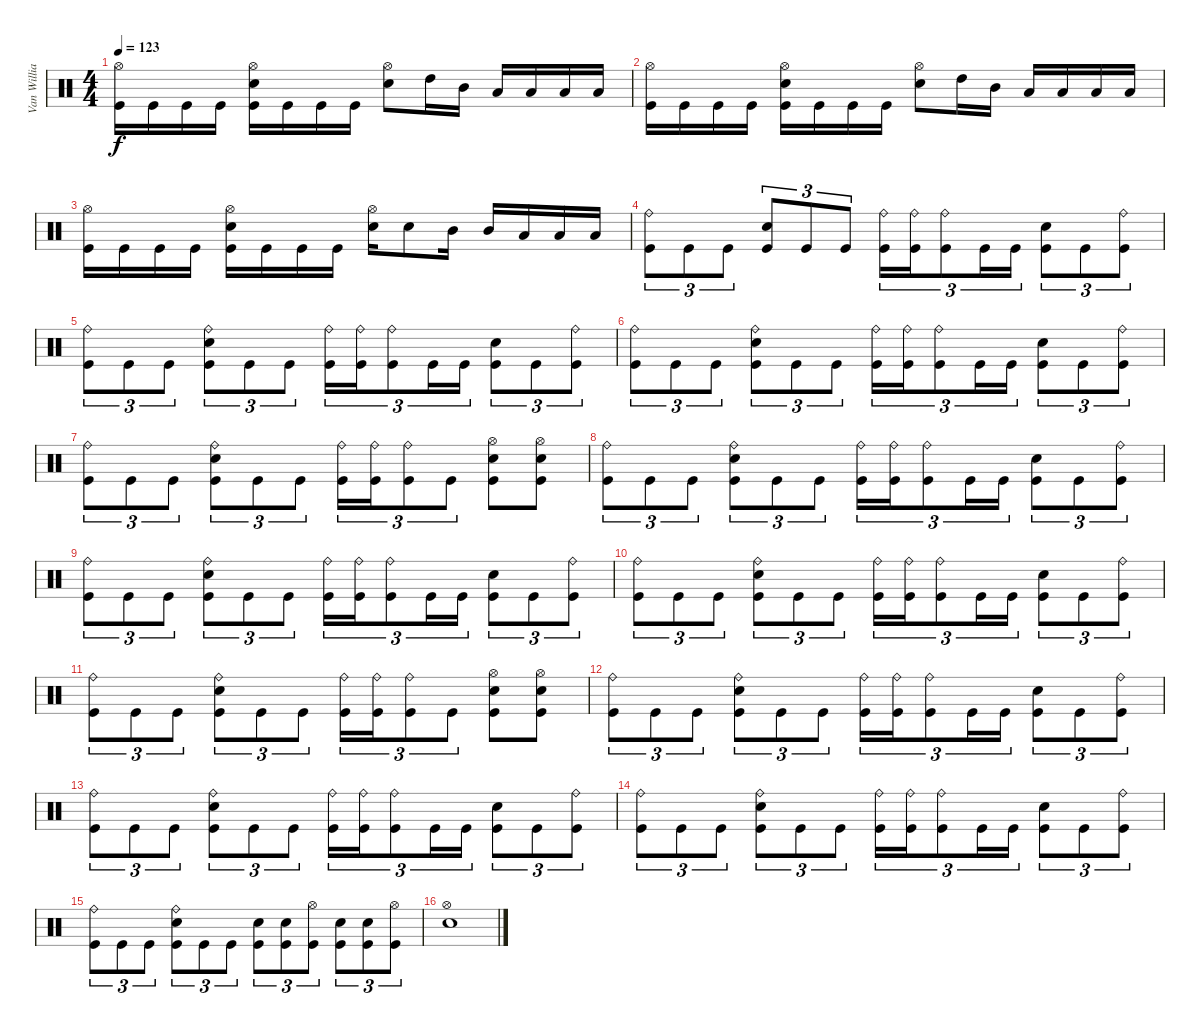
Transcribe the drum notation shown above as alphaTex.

\track ("Van Williams" "Van Willia") {instrument percussion}
\staff {score}
\articulation defaults
\ts (4 4)
\tempo 123
\clef neutral
\ks c
("Hi-Hat (open)" "Kick (hit)").16{dy f} "Kick (hit)".16 "Kick (hit)".16 "Kick (hit)".16 ("Hi-Hat (open)" "Electric Snare (hit)" "Kick (hit)").16 "Kick (hit)".16 "Kick (hit)".16 "Kick (hit)".16 ("Hi-Hat (open)" "Electric Snare (hit)").8 "High Tom (hit)".16 "Mid Tom (hit)".16 "Low Tom (hit)".16 "Low Tom (hit)".16 "Low Tom (hit)".16 "Low Tom (hit)".16 |
("Hi-Hat (open)" "Kick (hit)").16 "Kick (hit)".16 "Kick (hit)".16 "Kick (hit)".16 ("Hi-Hat (open)" "Electric Snare (hit)" "Kick (hit)").16 "Kick (hit)".16 "Kick (hit)".16 "Kick (hit)".16 ("Hi-Hat (open)" "Electric Snare (hit)").8 "High Tom (hit)".16 "Mid Tom (hit)".16 "Low Tom (hit)".16 "Low Tom (hit)".16 "Low Tom (hit)".16 "Low Tom (hit)".16 |
("Hi-Hat (open)" "Kick (hit)").16 "Kick (hit)".16 "Kick (hit)".16 "Kick (hit)".16 ("Hi-Hat (open)" "Electric Snare (hit)" "Kick (hit)").16 "Kick (hit)".16 "Kick (hit)".16 "Kick (hit)".16 ("Hi-Hat (open)" "Electric Snare (hit)").16 "Electric Snare (hit)".8 "Mid Tom (hit)".16 "Mid Tom (hit)".16 "Low Tom (hit)".16 "Low Tom (hit)".16 "Low Tom (hit)".16 |
("Ride (bell)" "Kick (hit)").8{tu (3 2)} "Kick (hit)".8{tu (3 2)} "Kick (hit)".8{tu (3 2)} ("Electric Snare (hit)" "Kick (hit)").8{tu (3 2)} "Kick (hit)".8{tu (3 2)} "Kick (hit)".8{tu (3 2)} ("Ride (bell)" "Kick (hit)").16{tu (3 2)} ("Ride (bell)" "Kick (hit)").16{tu (3 2)} ("Ride (bell)" "Kick (hit)").8{tu (3 2)} "Kick (hit)".16{tu (3 2)} "Kick (hit)".16{tu (3 2)} ("Electric Snare (hit)" "Kick (hit)").8{tu (3 2)} "Kick (hit)".8{tu (3 2)} ("Ride (bell)" "Kick (hit)").8{tu (3 2)} |
("Ride (bell)" "Kick (hit)").8{tu (3 2)} "Kick (hit)".8{tu (3 2)} "Kick (hit)".8{tu (3 2)} ("Ride (bell)" "Electric Snare (hit)" "Kick (hit)").8{tu (3 2)} "Kick (hit)".8{tu (3 2)} "Kick (hit)".8{tu (3 2)} ("Ride (bell)" "Kick (hit)").16{tu (3 2)} ("Ride (bell)" "Kick (hit)").16{tu (3 2)} ("Ride (bell)" "Kick (hit)").8{tu (3 2)} "Kick (hit)".16{tu (3 2)} "Kick (hit)".16{tu (3 2)} ("Electric Snare (hit)" "Kick (hit)").8{tu (3 2)} "Kick (hit)".8{tu (3 2)} ("Ride (bell)" "Kick (hit)").8{tu (3 2)} |
("Ride (bell)" "Kick (hit)").8{tu (3 2)} "Kick (hit)".8{tu (3 2)} "Kick (hit)".8{tu (3 2)} ("Ride (bell)" "Electric Snare (hit)" "Kick (hit)").8{tu (3 2)} "Kick (hit)".8{tu (3 2)} "Kick (hit)".8{tu (3 2)} ("Ride (bell)" "Kick (hit)").16{tu (3 2)} ("Ride (bell)" "Kick (hit)").16{tu (3 2)} ("Ride (bell)" "Kick (hit)").8{tu (3 2)} "Kick (hit)".16{tu (3 2)} "Kick (hit)".16{tu (3 2)} ("Electric Snare (hit)" "Kick (hit)").8{tu (3 2)} "Kick (hit)".8{tu (3 2)} ("Ride (bell)" "Kick (hit)").8{tu (3 2)} |
("Ride (bell)" "Kick (hit)").8{tu (3 2)} "Kick (hit)".8{tu (3 2)} "Kick (hit)".8{tu (3 2)} ("Ride (bell)" "Electric Snare (hit)" "Kick (hit)").8{tu (3 2)} "Kick (hit)".8{tu (3 2)} "Kick (hit)".8{tu (3 2)} ("Ride (bell)" "Kick (hit)").16{tu (3 2)} ("Ride (bell)" "Kick (hit)").16{tu (3 2)} ("Ride (bell)" "Kick (hit)").8{tu (3 2)} "Kick (hit)".8{tu (3 2)} ("Hi-Hat (open)" "Electric Snare (hit)" "Kick (hit)").8 ("Hi-Hat (open)" "Electric Snare (hit)" "Kick (hit)").8 |
("Ride (bell)" "Kick (hit)").8{tu (3 2)} "Kick (hit)".8{tu (3 2)} "Kick (hit)".8{tu (3 2)} ("Ride (bell)" "Electric Snare (hit)" "Kick (hit)").8{tu (3 2)} "Kick (hit)".8{tu (3 2)} "Kick (hit)".8{tu (3 2)} ("Ride (bell)" "Kick (hit)").16{tu (3 2)} ("Ride (bell)" "Kick (hit)").16{tu (3 2)} ("Ride (bell)" "Kick (hit)").8{tu (3 2)} "Kick (hit)".16{tu (3 2)} "Kick (hit)".16{tu (3 2)} ("Electric Snare (hit)" "Kick (hit)").8{tu (3 2)} "Kick (hit)".8{tu (3 2)} ("Ride (bell)" "Kick (hit)").8{tu (3 2)} |
("Ride (bell)" "Kick (hit)").8{tu (3 2)} "Kick (hit)".8{tu (3 2)} "Kick (hit)".8{tu (3 2)} ("Ride (bell)" "Electric Snare (hit)" "Kick (hit)").8{tu (3 2)} "Kick (hit)".8{tu (3 2)} "Kick (hit)".8{tu (3 2)} ("Ride (bell)" "Kick (hit)").16{tu (3 2)} ("Ride (bell)" "Kick (hit)").16{tu (3 2)} ("Ride (bell)" "Kick (hit)").8{tu (3 2)} "Kick (hit)".16{tu (3 2)} "Kick (hit)".16{tu (3 2)} ("Electric Snare (hit)" "Kick (hit)").8{tu (3 2)} "Kick (hit)".8{tu (3 2)} ("Ride (bell)" "Kick (hit)").8{tu (3 2)} |
("Ride (bell)" "Kick (hit)").8{tu (3 2)} "Kick (hit)".8{tu (3 2)} "Kick (hit)".8{tu (3 2)} ("Ride (bell)" "Electric Snare (hit)" "Kick (hit)").8{tu (3 2)} "Kick (hit)".8{tu (3 2)} "Kick (hit)".8{tu (3 2)} ("Ride (bell)" "Kick (hit)").16{tu (3 2)} ("Ride (bell)" "Kick (hit)").16{tu (3 2)} ("Ride (bell)" "Kick (hit)").8{tu (3 2)} "Kick (hit)".16{tu (3 2)} "Kick (hit)".16{tu (3 2)} ("Electric Snare (hit)" "Kick (hit)").8{tu (3 2)} "Kick (hit)".8{tu (3 2)} ("Ride (bell)" "Kick (hit)").8{tu (3 2)} |
("Ride (bell)" "Kick (hit)").8{tu (3 2)} "Kick (hit)".8{tu (3 2)} "Kick (hit)".8{tu (3 2)} ("Ride (bell)" "Electric Snare (hit)" "Kick (hit)").8{tu (3 2)} "Kick (hit)".8{tu (3 2)} "Kick (hit)".8{tu (3 2)} ("Ride (bell)" "Kick (hit)").16{tu (3 2)} ("Ride (bell)" "Kick (hit)").16{tu (3 2)} ("Ride (bell)" "Kick (hit)").8{tu (3 2)} "Kick (hit)".8{tu (3 2)} ("Hi-Hat (open)" "Electric Snare (hit)" "Kick (hit)").8 ("Hi-Hat (open)" "Electric Snare (hit)" "Kick (hit)").8 |
("Ride (bell)" "Kick (hit)").8{tu (3 2)} "Kick (hit)".8{tu (3 2)} "Kick (hit)".8{tu (3 2)} ("Ride (bell)" "Electric Snare (hit)" "Kick (hit)").8{tu (3 2)} "Kick (hit)".8{tu (3 2)} "Kick (hit)".8{tu (3 2)} ("Ride (bell)" "Kick (hit)").16{tu (3 2)} ("Ride (bell)" "Kick (hit)").16{tu (3 2)} ("Ride (bell)" "Kick (hit)").8{tu (3 2)} "Kick (hit)".16{tu (3 2)} "Kick (hit)".16{tu (3 2)} ("Electric Snare (hit)" "Kick (hit)").8{tu (3 2)} "Kick (hit)".8{tu (3 2)} ("Ride (bell)" "Kick (hit)").8{tu (3 2)} |
("Ride (bell)" "Kick (hit)").8{tu (3 2)} "Kick (hit)".8{tu (3 2)} "Kick (hit)".8{tu (3 2)} ("Ride (bell)" "Electric Snare (hit)" "Kick (hit)").8{tu (3 2)} "Kick (hit)".8{tu (3 2)} "Kick (hit)".8{tu (3 2)} ("Ride (bell)" "Kick (hit)").16{tu (3 2)} ("Ride (bell)" "Kick (hit)").16{tu (3 2)} ("Ride (bell)" "Kick (hit)").8{tu (3 2)} "Kick (hit)".16{tu (3 2)} "Kick (hit)".16{tu (3 2)} ("Electric Snare (hit)" "Kick (hit)").8{tu (3 2)} "Kick (hit)".8{tu (3 2)} ("Ride (bell)" "Kick (hit)").8{tu (3 2)} |
("Ride (bell)" "Kick (hit)").8{tu (3 2)} "Kick (hit)".8{tu (3 2)} "Kick (hit)".8{tu (3 2)} ("Ride (bell)" "Electric Snare (hit)" "Kick (hit)").8{tu (3 2)} "Kick (hit)".8{tu (3 2)} "Kick (hit)".8{tu (3 2)} ("Ride (bell)" "Kick (hit)").16{tu (3 2)} ("Ride (bell)" "Kick (hit)").16{tu (3 2)} ("Ride (bell)" "Kick (hit)").8{tu (3 2)} "Kick (hit)".16{tu (3 2)} "Kick (hit)".16{tu (3 2)} ("Electric Snare (hit)" "Kick (hit)").8{tu (3 2)} "Kick (hit)".8{tu (3 2)} ("Ride (bell)" "Kick (hit)").8{tu (3 2)} |
("Ride (bell)" "Kick (hit)").8{tu (3 2)} "Kick (hit)".8{tu (3 2)} "Kick (hit)".8{tu (3 2)} ("Ride (bell)" "Electric Snare (hit)" "Kick (hit)").8{tu (3 2)} "Kick (hit)".8{tu (3 2)} "Kick (hit)".8{tu (3 2)} ("Electric Snare (hit)" "Kick (hit)").8{tu (3 2)} ("Electric Snare (hit)" "Kick (hit)").8{tu (3 2)} ("Hi-Hat (open)" "Kick (hit)").8{tu (3 2)} ("Electric Snare (hit)" "Kick (hit)").8{tu (3 2)} ("Electric Snare (hit)" "Kick (hit)").8{tu (3 2)} ("Hi-Hat (open)" "Kick (hit)").8{tu (3 2)} |
("Hi-Hat (open)" "Electric Snare (hit)").1
